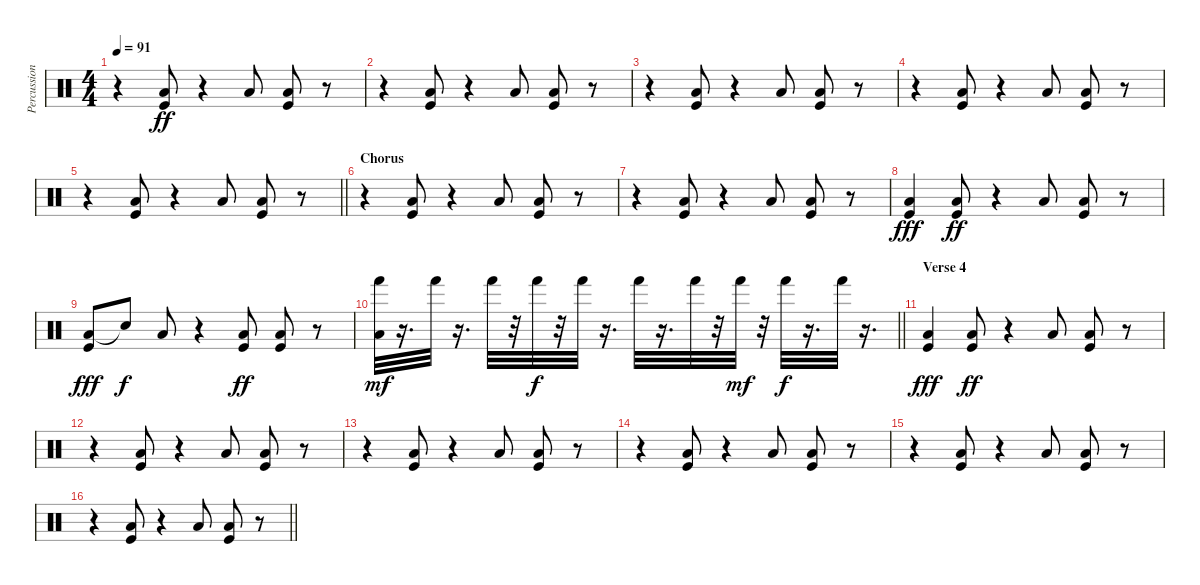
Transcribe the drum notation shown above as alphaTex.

\track ("Percussion" "Percussion") {instrument percussion}
\staff {score}
\articulation defaults
\ts (4 4)
\tempo 91
\clef neutral
\ks c
r.4{dy ff} ("Low Floor Tom (hit)" "Kick (hit)").8 r.4 "Low Tom (hit)".8 ("Low Floor Tom (hit)" "Kick (hit)").8 r.8 |
r.4 ("Low Floor Tom (hit)" "Kick (hit)").8 r.4 "Low Tom (hit)".8 ("Low Floor Tom (hit)" "Kick (hit)").8 r.8 |
r.4 ("Low Floor Tom (hit)" "Kick (hit)").8 r.4 "Low Tom (hit)".8 ("Low Floor Tom (hit)" "Kick (hit)").8 r.8 |
r.4 ("Low Floor Tom (hit)" "Kick (hit)").8 r.4 "Low Tom (hit)".8 ("Low Floor Tom (hit)" "Kick (hit)").8 r.8 |
\barLineRight lightlight
r.4 ("Low Floor Tom (hit)" "Kick (hit)").8 r.4 "Low Tom (hit)".8 ("Low Floor Tom (hit)" "Kick (hit)").8 r.8 |
\section ("" "Chorus")
r.4 ("Low Floor Tom (hit)" "Kick (hit)").8 r.4 "Low Tom (hit)".8 ("Low Floor Tom (hit)" "Kick (hit)").8 r.8 |
r.4 ("Low Floor Tom (hit)" "Kick (hit)").8 r.4 "Low Tom (hit)".8 ("Low Floor Tom (hit)" "Kick (hit)").8 r.8 |
("Low Floor Tom (hit)" "Kick (hit)").4{dy fff} ("Low Floor Tom (hit)" "Kick (hit)").8{dy ff} r.4 "Low Tom (hit)".8 ("Low Floor Tom (hit)" "Kick (hit)").8 r.8 |
("Low Floor Tom (hit)" "Kick (hit)").8{dy fff} "Snare (hit)"{t}.8{dy f} "Low Floor Tom (hit)".8 r.4 ("Low Tom (hit)" "Kick (hit)").8{dy ff} ("Low Floor Tom (hit)" "Kick (hit)").8 r.8 |
\barLineRight lightlight
("Hand (hit)" "Low Floor Tom (hit)").32{dy mf} r.16{d} "Hand (hit)".32 r.16{d} "Hand (hit)".32 r.32 "Hand (hit)".32{dy f} r.32 "Hand (hit)".32 r.16{d} "Hand (hit)".32 r.16{d} "Hand (hit)".32 r.32 "Hand (hit)".32{dy mf} r.32 "Hand (hit)".32{dy f} r.16{d} "Hand (hit)".32 r.16{d} |
\section ("" "Verse 4")
("Low Floor Tom (hit)" "Kick (hit)").4{dy fff} ("Low Floor Tom (hit)" "Kick (hit)").8{dy ff} r.4 "Low Tom (hit)".8 ("Low Floor Tom (hit)" "Kick (hit)").8 r.8 |
r.4 ("Low Floor Tom (hit)" "Kick (hit)").8 r.4 "Low Tom (hit)".8 ("Low Floor Tom (hit)" "Kick (hit)").8 r.8 |
r.4 ("Low Floor Tom (hit)" "Kick (hit)").8 r.4 "Low Tom (hit)".8 ("Low Floor Tom (hit)" "Kick (hit)").8 r.8 |
r.4 ("Low Floor Tom (hit)" "Kick (hit)").8 r.4 "Low Tom (hit)".8 ("Low Floor Tom (hit)" "Kick (hit)").8 r.8 |
r.4 ("Low Floor Tom (hit)" "Kick (hit)").8 r.4 "Low Tom (hit)".8 ("Low Floor Tom (hit)" "Kick (hit)").8 r.8 |
\barLineRight lightlight
r.4 ("Low Floor Tom (hit)" "Kick (hit)").8 r.4 "Low Tom (hit)".8 ("Low Floor Tom (hit)" "Kick (hit)").8 r.8
